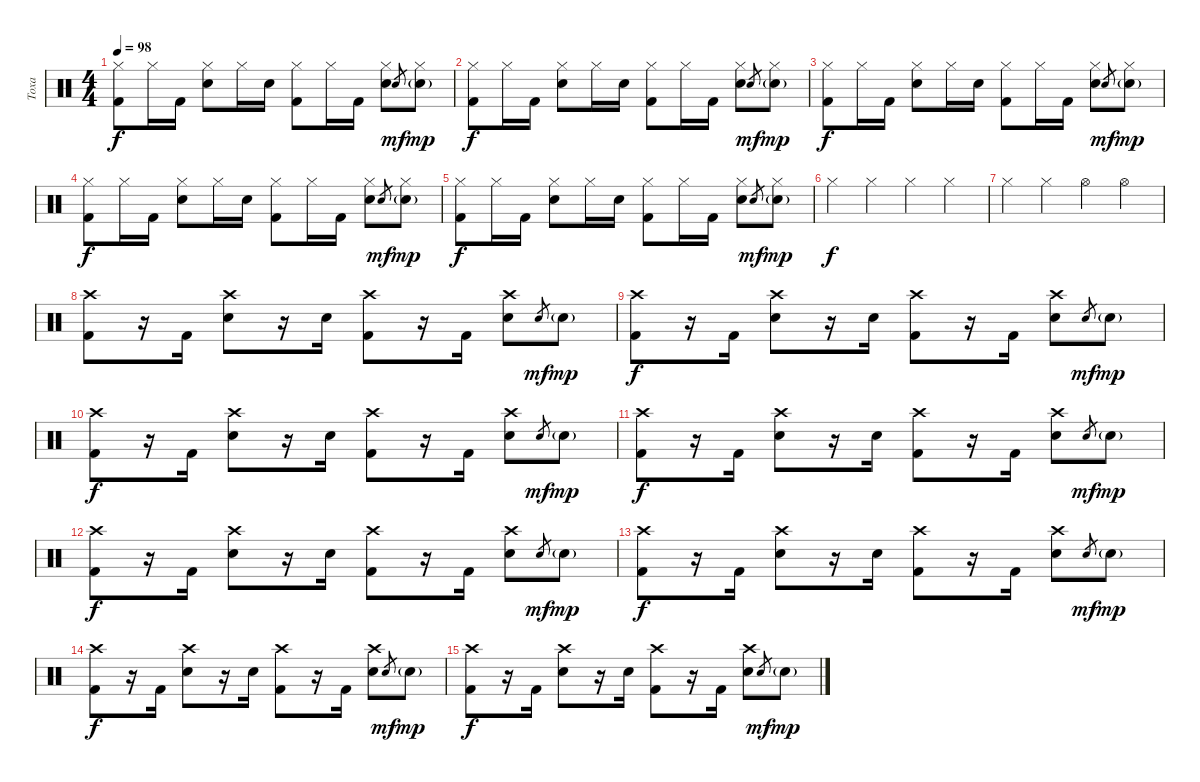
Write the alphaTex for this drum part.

\track ("Toxa" "Toxa") {instrument percussion}
\staff {score}
\articulation defaults
\ts (4 4)
\tempo 98
\clef neutral
\ks c
("Hi-Hat (closed)" "Kick (hit) 2").8{dy f} "Hi-Hat (closed)".16 "Kick (hit) 2".16 ("Hi-Hat (closed)" "Electric Snare (hit)").8 "Hi-Hat (closed)".16 "Electric Snare (hit)".16 ("Hi-Hat (closed)" "Kick (hit) 2").8 "Hi-Hat (closed)".16 "Kick (hit) 2".16 ("Hi-Hat (closed)" "Electric Snare (hit)").8 "Electric Snare (hit)".8{gr dy mf} ("Hi-Hat (closed)" "Electric Snare (hit)"{g}).8{dy mp} |
("Hi-Hat (closed)" "Kick (hit) 2").8{dy f} "Hi-Hat (closed)".16 "Kick (hit) 2".16 ("Hi-Hat (closed)" "Electric Snare (hit)").8 "Hi-Hat (closed)".16 "Electric Snare (hit)".16 ("Hi-Hat (closed)" "Kick (hit) 2").8 "Hi-Hat (closed)".16 "Kick (hit) 2".16 ("Hi-Hat (closed)" "Electric Snare (hit)").8 "Electric Snare (hit)".8{gr dy mf} ("Hi-Hat (closed)" "Electric Snare (hit)"{g}).8{dy mp} |
("Hi-Hat (closed)" "Kick (hit) 2").8{dy f} "Hi-Hat (closed)".16 "Kick (hit) 2".16 ("Hi-Hat (closed)" "Electric Snare (hit)").8 "Hi-Hat (closed)".16 "Electric Snare (hit)".16 ("Hi-Hat (closed)" "Kick (hit) 2").8 "Hi-Hat (closed)".16 "Kick (hit) 2".16 ("Hi-Hat (closed)" "Electric Snare (hit)").8 "Electric Snare (hit)".8{gr dy mf} ("Hi-Hat (closed)" "Electric Snare (hit)"{g}).8{dy mp} |
("Hi-Hat (closed)" "Kick (hit) 2").8{dy f} "Hi-Hat (closed)".16 "Kick (hit) 2".16 ("Hi-Hat (closed)" "Electric Snare (hit)").8 "Hi-Hat (closed)".16 "Electric Snare (hit)".16 ("Hi-Hat (closed)" "Kick (hit) 2").8 "Hi-Hat (closed)".16 "Kick (hit) 2".16 ("Hi-Hat (closed)" "Electric Snare (hit)").8 "Electric Snare (hit)".8{gr dy mf} ("Hi-Hat (closed)" "Electric Snare (hit)"{g}).8{dy mp} |
("Hi-Hat (closed)" "Kick (hit) 2").8{dy f} "Hi-Hat (closed)".16 "Kick (hit) 2".16 ("Hi-Hat (closed)" "Electric Snare (hit)").8 "Hi-Hat (closed)".16 "Electric Snare (hit)".16 ("Hi-Hat (closed)" "Kick (hit) 2").8 "Hi-Hat (closed)".16 "Kick (hit) 2".16 ("Hi-Hat (closed)" "Electric Snare (hit)").8 "Electric Snare (hit)".8{gr dy mf} ("Hi-Hat (closed)" "Electric Snare (hit)"{g}).8{dy mp} |
"Hi-Hat (closed)".4{dy f} "Hi-Hat (closed)".4 "Hi-Hat (closed)".4 "Hi-Hat (closed)".4 |
"Hi-Hat (closed)".4 "Hi-Hat (closed)".4 "Hi-Hat (open)".4 "Hi-Hat (open)".4 |
("Crash high (hit)" "Kick (hit) 2").8 r.16 "Kick (hit) 2".16 ("Crash high (hit)" "Electric Snare (hit)").8 r.16 "Electric Snare (hit)".16 ("Crash high (hit)" "Kick (hit) 2").8 r.16 "Kick (hit) 2".16 ("Crash high (hit)" "Electric Snare (hit)").8 "Electric Snare (hit)".8{gr dy mf} "Electric Snare (hit)"{g}.8{dy mp} |
("Crash high (hit)" "Kick (hit) 2").8{dy f} r.16 "Kick (hit) 2".16 ("Crash high (hit)" "Electric Snare (hit)").8 r.16 "Electric Snare (hit)".16 ("Crash high (hit)" "Kick (hit) 2").8 r.16 "Kick (hit) 2".16 ("Crash high (hit)" "Electric Snare (hit)").8 "Electric Snare (hit)".8{gr dy mf} "Electric Snare (hit)"{g}.8{dy mp} |
("Crash high (hit)" "Kick (hit) 2").8{dy f} r.16 "Kick (hit) 2".16 ("Crash high (hit)" "Electric Snare (hit)").8 r.16 "Electric Snare (hit)".16 ("Crash high (hit)" "Kick (hit) 2").8 r.16 "Kick (hit) 2".16 ("Crash high (hit)" "Electric Snare (hit)").8 "Electric Snare (hit)".8{gr dy mf} "Electric Snare (hit)"{g}.8{dy mp} |
("Crash high (hit)" "Kick (hit) 2").8{dy f} r.16 "Kick (hit) 2".16 ("Crash high (hit)" "Electric Snare (hit)").8 r.16 "Electric Snare (hit)".16 ("Crash high (hit)" "Kick (hit) 2").8 r.16 "Kick (hit) 2".16 ("Crash high (hit)" "Electric Snare (hit)").8 "Electric Snare (hit)".8{gr dy mf} "Electric Snare (hit)"{g}.8{dy mp} |
("Crash high (hit)" "Kick (hit) 2").8{dy f} r.16 "Kick (hit) 2".16 ("Crash high (hit)" "Electric Snare (hit)").8 r.16 "Electric Snare (hit)".16 ("Crash high (hit)" "Kick (hit) 2").8 r.16 "Kick (hit) 2".16 ("Crash high (hit)" "Electric Snare (hit)").8 "Electric Snare (hit)".8{gr dy mf} "Electric Snare (hit)"{g}.8{dy mp} |
("Crash high (hit)" "Kick (hit) 2").8{dy f} r.16 "Kick (hit) 2".16 ("Crash high (hit)" "Electric Snare (hit)").8 r.16 "Electric Snare (hit)".16 ("Crash high (hit)" "Kick (hit) 2").8 r.16 "Kick (hit) 2".16 ("Crash high (hit)" "Electric Snare (hit)").8 "Electric Snare (hit)".8{gr dy mf} "Electric Snare (hit)"{g}.8{dy mp} |
("Crash high (hit)" "Kick (hit) 2").8{dy f} r.16 "Kick (hit) 2".16 ("Crash high (hit)" "Electric Snare (hit)").8 r.16 "Electric Snare (hit)".16 ("Crash high (hit)" "Kick (hit) 2").8 r.16 "Kick (hit) 2".16 ("Crash high (hit)" "Electric Snare (hit)").8 "Electric Snare (hit)".8{gr dy mf} "Electric Snare (hit)"{g}.8{dy mp} |
("Crash high (hit)" "Kick (hit) 2").8{dy f} r.16 "Kick (hit) 2".16 ("Crash high (hit)" "Electric Snare (hit)").8 r.16 "Electric Snare (hit)".16 ("Crash high (hit)" "Kick (hit) 2").8 r.16 "Kick (hit) 2".16 ("Crash high (hit)" "Electric Snare (hit)").8 "Electric Snare (hit)".8{gr dy mf} "Electric Snare (hit)"{g}.8{dy mp}
